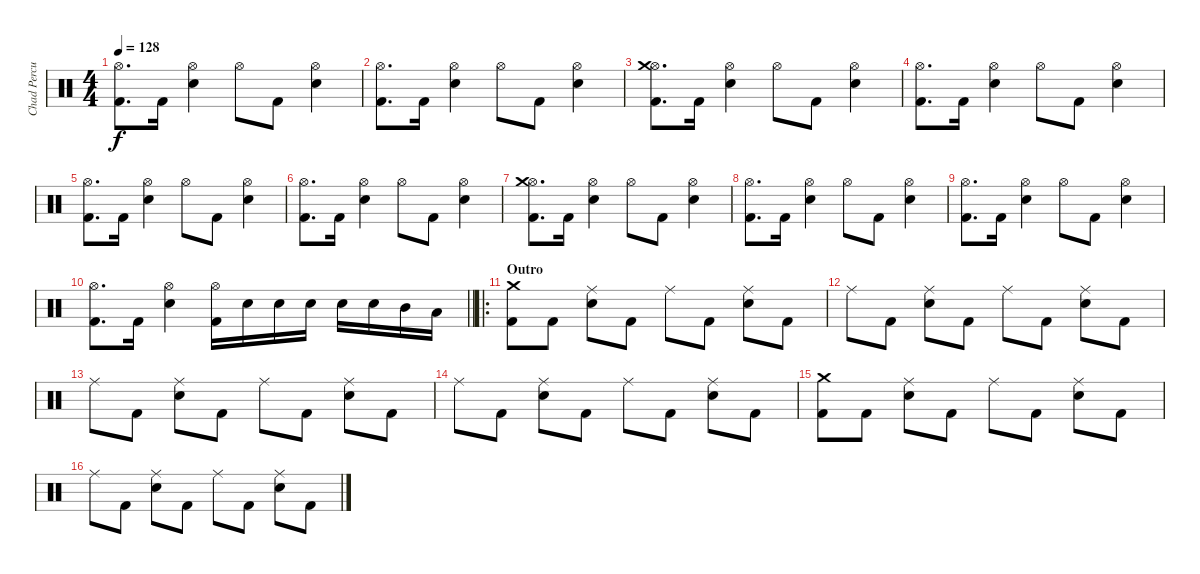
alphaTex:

\track ("Chad Percuson (11)" "Chad Percu") {instrument percussion}
\staff {score}
\articulation defaults
\ts (4 4)
\tempo 128
\clef neutral
\ks c
("Hi-Hat (open)" "Kick (hit) 2").8{d dy f} "Kick (hit) 2".16 ("Hi-Hat (open)" "Electric Snare (hit)").4 "Hi-Hat (open)".8 "Kick (hit) 2".8 ("Hi-Hat (open)" "Electric Snare (hit)").4 |
("Hi-Hat (open)" "Kick (hit) 2").8{d} "Kick (hit) 2".16 ("Hi-Hat (open)" "Electric Snare (hit)").4 "Hi-Hat (open)".8 "Kick (hit) 2".8 ("Hi-Hat (open)" "Electric Snare (hit)").4 |
("Hi-Hat (open)" "Kick (hit) 2" "Crash medium (hit)").8{d} "Kick (hit) 2".16 ("Hi-Hat (open)" "Electric Snare (hit)").4 "Hi-Hat (open)".8 "Kick (hit) 2".8 ("Hi-Hat (open)" "Electric Snare (hit)").4 |
("Hi-Hat (open)" "Kick (hit) 2").8{d} "Kick (hit) 2".16 ("Hi-Hat (open)" "Electric Snare (hit)").4 "Hi-Hat (open)".8 "Kick (hit) 2".8 ("Hi-Hat (open)" "Electric Snare (hit)").4 |
("Hi-Hat (open)" "Kick (hit) 2").8{d} "Kick (hit) 2".16 ("Hi-Hat (open)" "Electric Snare (hit)").4 "Hi-Hat (open)".8 "Kick (hit) 2".8 ("Hi-Hat (open)" "Electric Snare (hit)").4 |
("Hi-Hat (open)" "Kick (hit) 2").8{d} "Kick (hit) 2".16 ("Hi-Hat (open)" "Electric Snare (hit)").4 "Hi-Hat (open)".8 "Kick (hit) 2".8 ("Hi-Hat (open)" "Electric Snare (hit)").4 |
("Hi-Hat (open)" "Kick (hit) 2" "Crash medium (hit)").8{d} "Kick (hit) 2".16 ("Hi-Hat (open)" "Electric Snare (hit)").4 "Hi-Hat (open)".8 "Kick (hit) 2".8 ("Hi-Hat (open)" "Electric Snare (hit)").4 |
("Hi-Hat (open)" "Kick (hit) 2").8{d} "Kick (hit) 2".16 ("Hi-Hat (open)" "Electric Snare (hit)").4 "Hi-Hat (open)".8 "Kick (hit) 2".8 ("Hi-Hat (open)" "Electric Snare (hit)").4 |
("Hi-Hat (open)" "Kick (hit) 2").8{d} "Kick (hit) 2".16 ("Hi-Hat (open)" "Electric Snare (hit)").4 "Hi-Hat (open)".8 "Kick (hit) 2".8 ("Hi-Hat (open)" "Electric Snare (hit)").4 |
\barLineRight lightlight
("Hi-Hat (open)" "Kick (hit) 2").8{d} "Kick (hit) 2".16 ("Hi-Hat (open)" "Electric Snare (hit)").4 ("Hi-Hat (open)" "Kick (hit) 2").16 "Electric Snare (hit)".16 "Electric Snare (hit)".16 "Electric Snare (hit)".16 "Electric Snare (hit)".16 "Electric Snare (hit)".16 "Mid Tom (hit)".16 "Low Tom (hit)".16 |
\ro
\section ("" "Outro")
("Crash medium (hit)" "Kick (hit) 2").8 "Kick (hit) 2".8 ("Ride (middle)" "Electric Snare (hit)").8 "Kick (hit) 2".8 "Ride (middle)".8 "Kick (hit) 2".8 ("Ride (middle)" "Electric Snare (hit)").8 "Kick (hit) 2".8 |
"Ride (middle)".8 "Kick (hit) 2".8 ("Ride (middle)" "Electric Snare (hit)").8 "Kick (hit) 2".8 "Ride (middle)".8 "Kick (hit) 2".8 ("Ride (middle)" "Electric Snare (hit)").8 "Kick (hit) 2".8 |
"Ride (middle)".8 "Kick (hit) 2".8 ("Ride (middle)" "Electric Snare (hit)").8 "Kick (hit) 2".8 "Ride (middle)".8 "Kick (hit) 2".8 ("Ride (middle)" "Electric Snare (hit)").8 "Kick (hit) 2".8 |
"Ride (middle)".8 "Kick (hit) 2".8 ("Ride (middle)" "Electric Snare (hit)").8 "Kick (hit) 2".8 "Ride (middle)".8 "Kick (hit) 2".8 ("Ride (middle)" "Electric Snare (hit)").8 "Kick (hit) 2".8 |
("Crash medium (hit)" "Kick (hit) 2").8 "Kick (hit) 2".8 ("Ride (middle)" "Electric Snare (hit)").8 "Kick (hit) 2".8 "Ride (middle)".8 "Kick (hit) 2".8 ("Ride (middle)" "Electric Snare (hit)").8 "Kick (hit) 2".8 |
"Ride (middle)".8 "Kick (hit) 2".8 ("Ride (middle)" "Electric Snare (hit)").8 "Kick (hit) 2".8 "Ride (middle)".8 "Kick (hit) 2".8 ("Ride (middle)" "Electric Snare (hit)").8 "Kick (hit) 2".8
